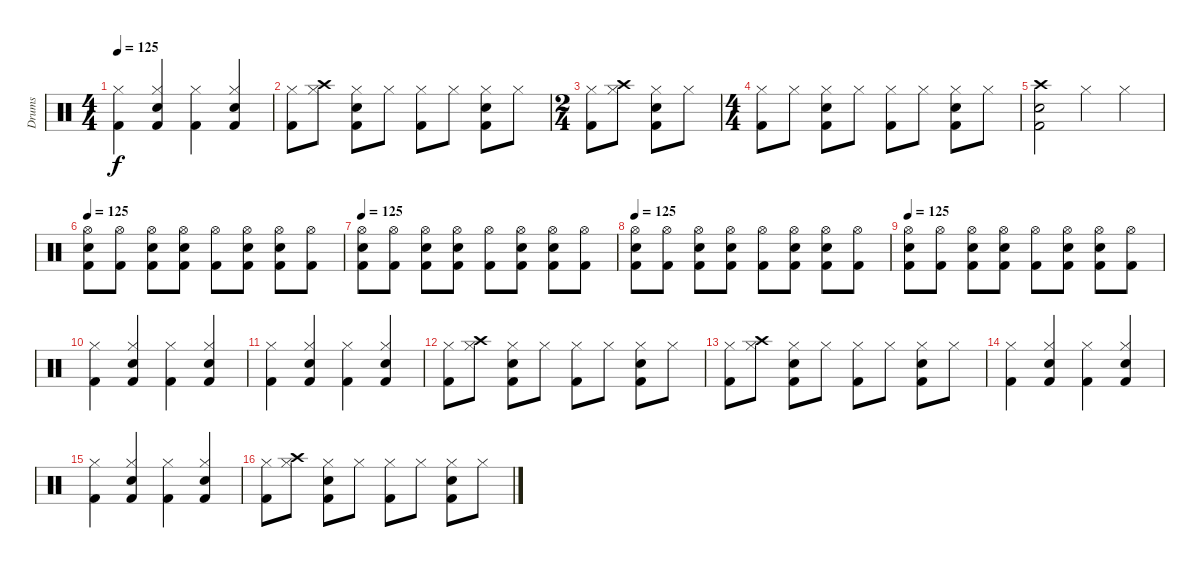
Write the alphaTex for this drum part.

\track ("Drums" "Drums") {instrument percussion}
\staff {score}
\articulation defaults
\ts (4 4)
\tempo 125
\clef neutral
\ks c
("Kick (hit) 2" "Hi-Hat (closed)").4{dy f} ("Kick (hit) 2" "Electric Snare (hit)" "Hi-Hat (closed)").4 ("Kick (hit) 2" "Hi-Hat (closed)").4 ("Kick (hit) 2" "Electric Snare (hit)" "Hi-Hat (closed)").4 |
("Hi-Hat (closed)" "Kick (hit) 2").8 ("Hi-Hat (closed)" "Crash high (hit)").8 ("Hi-Hat (closed)" "Electric Snare (hit)" "Kick (hit) 2").8 "Hi-Hat (closed)".8 ("Hi-Hat (closed)" "Kick (hit) 2").8 "Hi-Hat (closed)".8 ("Hi-Hat (closed)" "Electric Snare (hit)" "Kick (hit) 2").8 "Hi-Hat (closed)".8 |
\ts (2 4)
("Hi-Hat (closed)" "Kick (hit) 2").8 ("Hi-Hat (closed)" "Crash high (hit)").8 ("Hi-Hat (closed)" "Electric Snare (hit)" "Kick (hit) 2").8 "Hi-Hat (closed)".8 |
\ts (4 4)
("Hi-Hat (closed)" "Kick (hit) 2").8 "Hi-Hat (closed)".8 ("Hi-Hat (closed)" "Electric Snare (hit)" "Kick (hit) 2").8 "Hi-Hat (closed)".8 ("Hi-Hat (closed)" "Kick (hit) 2").8 "Hi-Hat (closed)".8 ("Hi-Hat (closed)" "Electric Snare (hit)" "Kick (hit) 2").8 "Hi-Hat (closed)".8 |
("Crash high (hit)" "Kick (hit) 2" "Electric Snare (hit)").2 "Hi-Hat (closed)".4 "Hi-Hat (closed)".4 |
\tempo 125
("Hi-Hat (open)" "Kick (hit) 2" "Electric Snare (hit)").8 ("Hi-Hat (open)" "Kick (hit) 2").8 ("Hi-Hat (open)" "Kick (hit) 2" "Electric Snare (hit)").8 ("Hi-Hat (open)" "Kick (hit) 2" "Electric Snare (hit)").8 ("Hi-Hat (open)" "Kick (hit) 2").8 ("Hi-Hat (open)" "Kick (hit) 2" "Electric Snare (hit)").8 ("Hi-Hat (open)" "Kick (hit) 2" "Electric Snare (hit)").8 ("Hi-Hat (open)" "Kick (hit) 2").8 |
\tempo 125
("Hi-Hat (open)" "Kick (hit) 2" "Electric Snare (hit)").8 ("Hi-Hat (open)" "Kick (hit) 2").8 ("Hi-Hat (open)" "Kick (hit) 2" "Electric Snare (hit)").8 ("Hi-Hat (open)" "Kick (hit) 2" "Electric Snare (hit)").8 ("Hi-Hat (open)" "Kick (hit) 2").8 ("Hi-Hat (open)" "Kick (hit) 2" "Electric Snare (hit)").8 ("Hi-Hat (open)" "Kick (hit) 2" "Electric Snare (hit)").8 ("Hi-Hat (open)" "Kick (hit) 2").8 |
\tempo 125
("Hi-Hat (open)" "Kick (hit) 2" "Electric Snare (hit)").8 ("Hi-Hat (open)" "Kick (hit) 2").8 ("Hi-Hat (open)" "Kick (hit) 2" "Electric Snare (hit)").8 ("Hi-Hat (open)" "Kick (hit) 2" "Electric Snare (hit)").8 ("Hi-Hat (open)" "Kick (hit) 2").8 ("Hi-Hat (open)" "Kick (hit) 2" "Electric Snare (hit)").8 ("Hi-Hat (open)" "Kick (hit) 2" "Electric Snare (hit)").8 ("Hi-Hat (open)" "Kick (hit) 2").8 |
\tempo 125
("Hi-Hat (open)" "Kick (hit) 2" "Electric Snare (hit)").8 ("Hi-Hat (open)" "Kick (hit) 2").8 ("Hi-Hat (open)" "Kick (hit) 2" "Electric Snare (hit)").8 ("Hi-Hat (open)" "Kick (hit) 2" "Electric Snare (hit)").8 ("Hi-Hat (open)" "Kick (hit) 2").8 ("Hi-Hat (open)" "Kick (hit) 2" "Electric Snare (hit)").8 ("Hi-Hat (open)" "Kick (hit) 2" "Electric Snare (hit)").8 ("Hi-Hat (open)" "Kick (hit) 2").8 |
("Kick (hit) 2" "Hi-Hat (closed)").4 ("Kick (hit) 2" "Electric Snare (hit)" "Hi-Hat (closed)").4 ("Kick (hit) 2" "Hi-Hat (closed)").4 ("Kick (hit) 2" "Electric Snare (hit)" "Hi-Hat (closed)").4 |
("Kick (hit) 2" "Hi-Hat (closed)").4 ("Kick (hit) 2" "Electric Snare (hit)" "Hi-Hat (closed)").4 ("Kick (hit) 2" "Hi-Hat (closed)").4 ("Kick (hit) 2" "Electric Snare (hit)" "Hi-Hat (closed)").4 |
("Hi-Hat (closed)" "Kick (hit) 2").8 ("Hi-Hat (closed)" "Crash high (hit)").8 ("Hi-Hat (closed)" "Electric Snare (hit)" "Kick (hit) 2").8 "Hi-Hat (closed)".8 ("Hi-Hat (closed)" "Kick (hit) 2").8 "Hi-Hat (closed)".8 ("Hi-Hat (closed)" "Electric Snare (hit)" "Kick (hit) 2").8 "Hi-Hat (closed)".8 |
("Hi-Hat (closed)" "Kick (hit) 2").8 ("Hi-Hat (closed)" "Crash high (hit)").8 ("Hi-Hat (closed)" "Electric Snare (hit)" "Kick (hit) 2").8 "Hi-Hat (closed)".8 ("Hi-Hat (closed)" "Kick (hit) 2").8 "Hi-Hat (closed)".8 ("Hi-Hat (closed)" "Electric Snare (hit)" "Kick (hit) 2").8 "Hi-Hat (closed)".8 |
("Kick (hit) 2" "Hi-Hat (closed)").4 ("Kick (hit) 2" "Electric Snare (hit)" "Hi-Hat (closed)").4 ("Kick (hit) 2" "Hi-Hat (closed)").4 ("Kick (hit) 2" "Electric Snare (hit)" "Hi-Hat (closed)").4 |
("Kick (hit) 2" "Hi-Hat (closed)").4 ("Kick (hit) 2" "Electric Snare (hit)" "Hi-Hat (closed)").4 ("Kick (hit) 2" "Hi-Hat (closed)").4 ("Kick (hit) 2" "Electric Snare (hit)" "Hi-Hat (closed)").4 |
("Hi-Hat (closed)" "Kick (hit) 2").8 ("Hi-Hat (closed)" "Crash high (hit)").8 ("Hi-Hat (closed)" "Electric Snare (hit)" "Kick (hit) 2").8 "Hi-Hat (closed)".8 ("Hi-Hat (closed)" "Kick (hit) 2").8 "Hi-Hat (closed)".8 ("Hi-Hat (closed)" "Electric Snare (hit)" "Kick (hit) 2").8 "Hi-Hat (closed)".8
